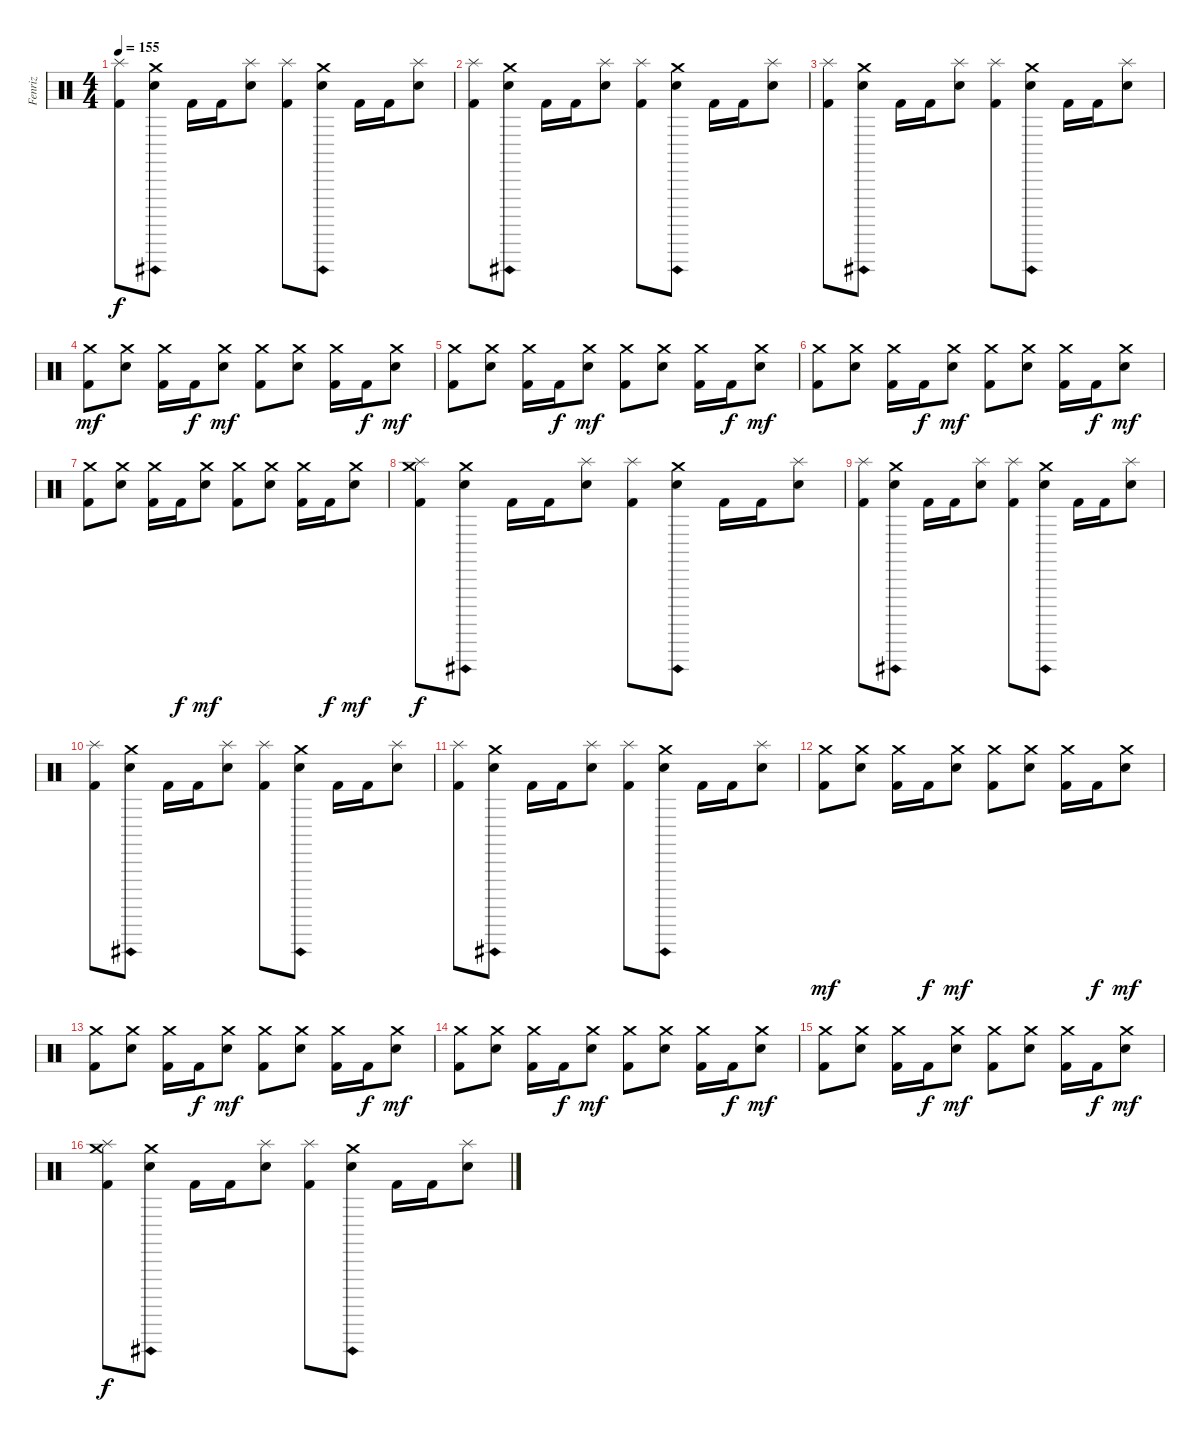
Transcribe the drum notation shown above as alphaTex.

\track ("Fenriz" "Fenriz") {instrument percussion}
\staff {score}
\articulation defaults
\ts (4 4)
\tempo 155
\clef neutral
\ks c
("Kick (hit) 2" "Splash (hit)").8{dy f} ("Electric Snare (hit)" "Crash medium (hit)"{ah 12}).8 "Kick (hit) 2".16 "Kick (hit) 2".16 ("Electric Snare (hit)" "Splash (hit)").8 ("Kick (hit) 2" "Splash (hit)").8 ("Electric Snare (hit)" "Crash medium (hit)"{ah 12}).8 "Kick (hit) 2".16 "Kick (hit) 2".16 ("Electric Snare (hit)" "Splash (hit)").8 |
("Kick (hit) 2" "Splash (hit)").8 ("Electric Snare (hit)" "Crash medium (hit)"{ah 12}).8 "Kick (hit) 2".16 "Kick (hit) 2".16 ("Electric Snare (hit)" "Splash (hit)").8 ("Kick (hit) 2" "Splash (hit)").8 ("Electric Snare (hit)" "Crash medium (hit)"{ah 12}).8 "Kick (hit) 2".16 "Kick (hit) 2".16 ("Electric Snare (hit)" "Splash (hit)").8 |
("Kick (hit) 2" "Splash (hit)").8 ("Electric Snare (hit)" "Crash medium (hit)"{ah 12}).8 "Kick (hit) 2".16 "Kick (hit) 2".16 ("Electric Snare (hit)" "Splash (hit)").8 ("Kick (hit) 2" "Splash (hit)").8 ("Electric Snare (hit)" "Crash medium (hit)"{ah 12}).8 "Kick (hit) 2".16 "Kick (hit) 2".16 ("Electric Snare (hit)" "Splash (hit)").8 |
("Kick (hit) 2" "Crash medium (hit)").8{dy mf} ("Electric Snare (hit)" "Crash medium (hit)").8 ("Kick (hit) 2" "Crash medium (hit)").16 "Kick (hit) 2".16{dy f} ("Electric Snare (hit)" "Crash medium (hit)").8{dy mf} ("Kick (hit) 2" "Crash medium (hit)").8 ("Electric Snare (hit)" "Crash medium (hit)").8 ("Kick (hit) 2" "Crash medium (hit)").16 "Kick (hit) 2".16{dy f} ("Electric Snare (hit)" "Crash medium (hit)").8{dy mf} |
("Kick (hit) 2" "Crash medium (hit)").8 ("Electric Snare (hit)" "Crash medium (hit)").8 ("Kick (hit) 2" "Crash medium (hit)").16 "Kick (hit) 2".16{dy f} ("Electric Snare (hit)" "Crash medium (hit)").8{dy mf} ("Kick (hit) 2" "Crash medium (hit)").8 ("Electric Snare (hit)" "Crash medium (hit)").8 ("Kick (hit) 2" "Crash medium (hit)").16 "Kick (hit) 2".16{dy f} ("Electric Snare (hit)" "Crash medium (hit)").8{dy mf} |
("Kick (hit) 2" "Crash medium (hit)").8 ("Electric Snare (hit)" "Crash medium (hit)").8 ("Kick (hit) 2" "Crash medium (hit)").16 "Kick (hit) 2".16{dy f} ("Electric Snare (hit)" "Crash medium (hit)").8{dy mf} ("Kick (hit) 2" "Crash medium (hit)").8 ("Electric Snare (hit)" "Crash medium (hit)").8 ("Kick (hit) 2" "Crash medium (hit)").16 "Kick (hit) 2".16{dy f} ("Electric Snare (hit)" "Crash medium (hit)").8{dy mf} |
("Kick (hit) 2" "Crash medium (hit)").8 ("Electric Snare (hit)" "Crash medium (hit)").8 ("Kick (hit) 2" "Crash medium (hit)").16 "Kick (hit) 2".16{dy f} ("Electric Snare (hit)" "Crash medium (hit)").8{dy mf} ("Kick (hit) 2" "Crash medium (hit)").8 ("Electric Snare (hit)" "Crash medium (hit)").8 ("Kick (hit) 2" "Crash medium (hit)").16 "Kick (hit) 2".16{dy f} ("Electric Snare (hit)" "Crash medium (hit)").8{dy mf} |
("Kick (hit) 2" "Crash medium (hit)" "Splash (hit)").8{dy f} ("Electric Snare (hit)" "Crash medium (hit)"{ah 12}).8 "Kick (hit) 2".16 "Kick (hit) 2".16 ("Electric Snare (hit)" "Splash (hit)").8 ("Kick (hit) 2" "Splash (hit)").8 ("Electric Snare (hit)" "Crash medium (hit)"{ah 12}).8 "Kick (hit) 2".16 "Kick (hit) 2".16 ("Electric Snare (hit)" "Splash (hit)").8 |
("Kick (hit) 2" "Splash (hit)").8 ("Electric Snare (hit)" "Crash medium (hit)"{ah 12}).8 "Kick (hit) 2".16 "Kick (hit) 2".16 ("Electric Snare (hit)" "Splash (hit)").8 ("Kick (hit) 2" "Splash (hit)").8 ("Electric Snare (hit)" "Crash medium (hit)"{ah 12}).8 "Kick (hit) 2".16 "Kick (hit) 2".16 ("Electric Snare (hit)" "Splash (hit)").8 |
("Kick (hit) 2" "Splash (hit)").8 ("Electric Snare (hit)" "Crash medium (hit)"{ah 12}).8 "Kick (hit) 2".16 "Kick (hit) 2".16 ("Electric Snare (hit)" "Splash (hit)").8 ("Kick (hit) 2" "Splash (hit)").8 ("Electric Snare (hit)" "Crash medium (hit)"{ah 12}).8 "Kick (hit) 2".16 "Kick (hit) 2".16 ("Electric Snare (hit)" "Splash (hit)").8 |
("Kick (hit) 2" "Splash (hit)").8 ("Electric Snare (hit)" "Crash medium (hit)"{ah 12}).8 "Kick (hit) 2".16 "Kick (hit) 2".16 ("Electric Snare (hit)" "Splash (hit)").8 ("Kick (hit) 2" "Splash (hit)").8 ("Electric Snare (hit)" "Crash medium (hit)"{ah 12}).8 "Kick (hit) 2".16 "Kick (hit) 2".16 ("Electric Snare (hit)" "Splash (hit)").8 |
("Kick (hit) 2" "Crash medium (hit)").8{dy mf} ("Electric Snare (hit)" "Crash medium (hit)").8 ("Kick (hit) 2" "Crash medium (hit)").16 "Kick (hit) 2".16{dy f} ("Electric Snare (hit)" "Crash medium (hit)").8{dy mf} ("Kick (hit) 2" "Crash medium (hit)").8 ("Electric Snare (hit)" "Crash medium (hit)").8 ("Kick (hit) 2" "Crash medium (hit)").16 "Kick (hit) 2".16{dy f} ("Electric Snare (hit)" "Crash medium (hit)").8{dy mf} |
("Kick (hit) 2" "Crash medium (hit)").8 ("Electric Snare (hit)" "Crash medium (hit)").8 ("Kick (hit) 2" "Crash medium (hit)").16 "Kick (hit) 2".16{dy f} ("Electric Snare (hit)" "Crash medium (hit)").8{dy mf} ("Kick (hit) 2" "Crash medium (hit)").8 ("Electric Snare (hit)" "Crash medium (hit)").8 ("Kick (hit) 2" "Crash medium (hit)").16 "Kick (hit) 2".16{dy f} ("Electric Snare (hit)" "Crash medium (hit)").8{dy mf} |
("Kick (hit) 2" "Crash medium (hit)").8 ("Electric Snare (hit)" "Crash medium (hit)").8 ("Kick (hit) 2" "Crash medium (hit)").16 "Kick (hit) 2".16{dy f} ("Electric Snare (hit)" "Crash medium (hit)").8{dy mf} ("Kick (hit) 2" "Crash medium (hit)").8 ("Electric Snare (hit)" "Crash medium (hit)").8 ("Kick (hit) 2" "Crash medium (hit)").16 "Kick (hit) 2".16{dy f} ("Electric Snare (hit)" "Crash medium (hit)").8{dy mf} |
("Kick (hit) 2" "Crash medium (hit)").8 ("Electric Snare (hit)" "Crash medium (hit)").8 ("Kick (hit) 2" "Crash medium (hit)").16 "Kick (hit) 2".16{dy f} ("Electric Snare (hit)" "Crash medium (hit)").8{dy mf} ("Kick (hit) 2" "Crash medium (hit)").8 ("Electric Snare (hit)" "Crash medium (hit)").8 ("Kick (hit) 2" "Crash medium (hit)").16 "Kick (hit) 2".16{dy f} ("Electric Snare (hit)" "Crash medium (hit)").8{dy mf} |
("Kick (hit) 2" "Crash medium (hit)" "Splash (hit)").8{dy f} ("Electric Snare (hit)" "Crash medium (hit)"{ah 12}).8 "Kick (hit) 2".16 "Kick (hit) 2".16 ("Electric Snare (hit)" "Splash (hit)").8 ("Kick (hit) 2" "Splash (hit)").8 ("Electric Snare (hit)" "Crash medium (hit)"{ah 12}).8 "Kick (hit) 2".16 "Kick (hit) 2".16 ("Electric Snare (hit)" "Splash (hit)").8
